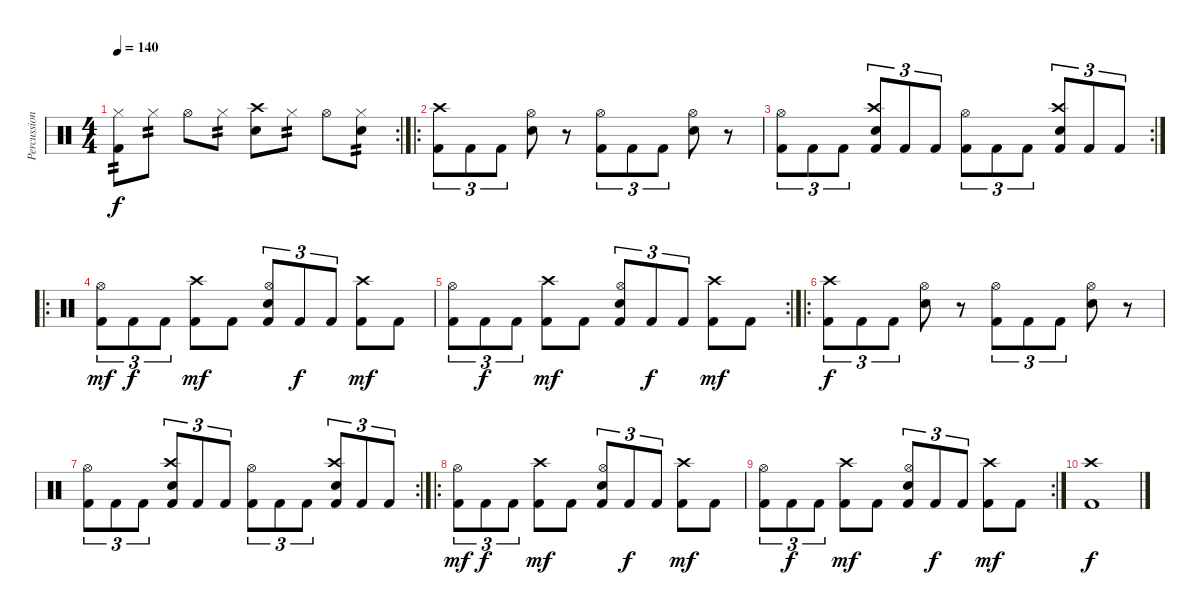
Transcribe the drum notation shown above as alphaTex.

\track ("Percussion" "Percussion") {instrument percussion}
\staff {score}
\articulation defaults
\rc 2
\ts (4 4)
\tempo 140
\clef neutral
\ks c
("Hi-Hat (closed)" "Kick (hit) 2").8{tp 2 dy f} "Hi-Hat (closed)".8{tp 2} "Hi-Hat (open)".8 "Hi-Hat (closed)".8{tp 2} ("Crash high (hit)" "Snare (hit) 2").8 "Hi-Hat (closed)".8{tp 2} "Hi-Hat (open)".8 ("Hi-Hat (closed)" "Snare (hit) 2").8{tp 2} |
\ro
("Crash high (hit)" "Kick (hit) 2").8{tu (3 2)} "Kick (hit) 2".8{tu (3 2)} "Kick (hit) 2".8{tu (3 2)} ("Hi-Hat (open)" "Snare (hit) 2").8 r.8 ("Hi-Hat (open)" "Kick (hit) 2").8{tu (3 2)} "Kick (hit) 2".8{tu (3 2)} "Kick (hit) 2".8{tu (3 2)} ("Hi-Hat (open)" "Snare (hit) 2").8 r.8 |
\rc 2
("Hi-Hat (open)" "Kick (hit) 2").8{tu (3 2)} "Kick (hit) 2".8{tu (3 2)} "Kick (hit) 2".8{tu (3 2)} ("Crash high (hit)" "Snare (hit) 2" "Kick (hit) 2").8{tu (3 2)} "Kick (hit) 2".8{tu (3 2)} "Kick (hit) 2".8{tu (3 2)} ("Hi-Hat (open)" "Kick (hit) 2").8{tu (3 2)} "Kick (hit) 2".8{tu (3 2)} "Kick (hit) 2".8{tu (3 2)} ("Crash high (hit)" "Snare (hit) 2" "Kick (hit) 2").8{tu (3 2)} "Kick (hit) 2".8{tu (3 2)} "Kick (hit) 2".8{tu (3 2)} |
\ro
("Hi-Hat (open)" "Kick (hit) 2").8{tu (3 2) dy mf} "Kick (hit) 2".8{tu (3 2) dy f} "Kick (hit) 2".8{tu (3 2)} ("Crash high (hit)" "Kick (hit) 2").8{dy mf} "Kick (hit) 2".8 ("Hi-Hat (open)" "Snare (hit) 2" "Kick (hit) 2").8{tu (3 2)} "Kick (hit) 2".8{tu (3 2) dy f} "Kick (hit) 2".8{tu (3 2)} ("Crash high (hit)" "Kick (hit) 2").8{dy mf} "Kick (hit) 2".8 |
\rc 2
("Hi-Hat (open)" "Kick (hit) 2").8{tu (3 2)} "Kick (hit) 2".8{tu (3 2) dy f} "Kick (hit) 2".8{tu (3 2)} ("Crash high (hit)" "Kick (hit) 2").8{dy mf} "Kick (hit) 2".8 ("Hi-Hat (open)" "Snare (hit) 2" "Kick (hit) 2").8{tu (3 2)} "Kick (hit) 2".8{tu (3 2) dy f} "Kick (hit) 2".8{tu (3 2)} ("Crash high (hit)" "Kick (hit) 2").8{dy mf} "Kick (hit) 2".8 |
\ro
("Crash high (hit)" "Kick (hit) 2").8{tu (3 2) dy f} "Kick (hit) 2".8{tu (3 2)} "Kick (hit) 2".8{tu (3 2)} ("Hi-Hat (open)" "Snare (hit) 2").8 r.8 ("Hi-Hat (open)" "Kick (hit) 2").8{tu (3 2)} "Kick (hit) 2".8{tu (3 2)} "Kick (hit) 2".8{tu (3 2)} ("Hi-Hat (open)" "Snare (hit) 2").8 r.8 |
\rc 2
("Hi-Hat (open)" "Kick (hit) 2").8{tu (3 2)} "Kick (hit) 2".8{tu (3 2)} "Kick (hit) 2".8{tu (3 2)} ("Crash high (hit)" "Snare (hit) 2" "Kick (hit) 2").8{tu (3 2)} "Kick (hit) 2".8{tu (3 2)} "Kick (hit) 2".8{tu (3 2)} ("Hi-Hat (open)" "Kick (hit) 2").8{tu (3 2)} "Kick (hit) 2".8{tu (3 2)} "Kick (hit) 2".8{tu (3 2)} ("Crash high (hit)" "Snare (hit) 2" "Kick (hit) 2").8{tu (3 2)} "Kick (hit) 2".8{tu (3 2)} "Kick (hit) 2".8{tu (3 2)} |
\ro
("Hi-Hat (open)" "Kick (hit) 2").8{tu (3 2) dy mf} "Kick (hit) 2".8{tu (3 2) dy f} "Kick (hit) 2".8{tu (3 2)} ("Crash high (hit)" "Kick (hit) 2").8{dy mf} "Kick (hit) 2".8 ("Hi-Hat (open)" "Snare (hit) 2" "Kick (hit) 2").8{tu (3 2)} "Kick (hit) 2".8{tu (3 2) dy f} "Kick (hit) 2".8{tu (3 2)} ("Crash high (hit)" "Kick (hit) 2").8{dy mf} "Kick (hit) 2".8 |
\rc 2
("Hi-Hat (open)" "Kick (hit) 2").8{tu (3 2)} "Kick (hit) 2".8{tu (3 2) dy f} "Kick (hit) 2".8{tu (3 2)} ("Crash high (hit)" "Kick (hit) 2").8{dy mf} "Kick (hit) 2".8 ("Hi-Hat (open)" "Snare (hit) 2" "Kick (hit) 2").8{tu (3 2)} "Kick (hit) 2".8{tu (3 2) dy f} "Kick (hit) 2".8{tu (3 2)} ("Crash high (hit)" "Kick (hit) 2").8{dy mf} "Kick (hit) 2".8 |
("Crash high (hit)" "Kick (hit) 2").1{dy f}
